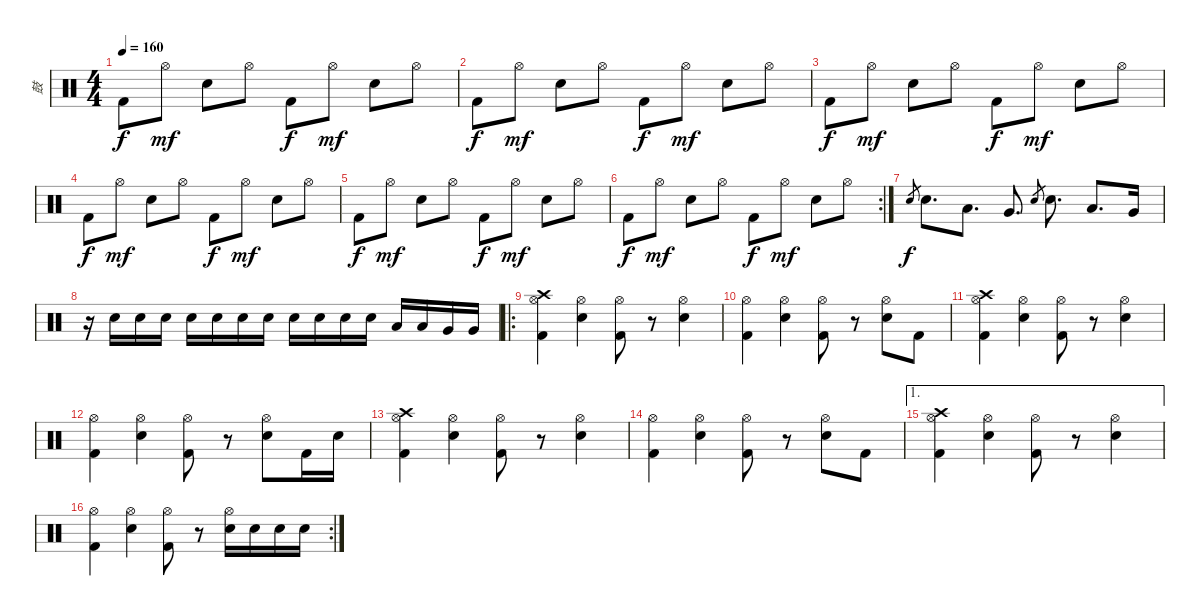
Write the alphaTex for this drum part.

\track ("鼓" "鼓") {instrument percussion}
\staff {score}
\articulation defaults
\ts (4 4)
\tempo 160
\clef neutral
\ks c "Kick (hit) 2".8{dy f} "Hi-Hat (open)".8{dy mf} "Electric Snare (hit)".8 "Hi-Hat (open)".8 "Kick (hit) 2".8{dy f} "Hi-Hat (open)".8{dy mf} "Electric Snare (hit)".8 "Hi-Hat (open)".8
|
"Kick (hit) 2".8{dy f} "Hi-Hat (open)".8{dy mf} "Electric Snare (hit)".8 "Hi-Hat (open)".8 "Kick (hit) 2".8{dy f} "Hi-Hat (open)".8{dy mf} "Electric Snare (hit)".8 "Hi-Hat (open)".8 |
"Kick (hit) 2".8{dy f} "Hi-Hat (open)".8{dy mf} "Electric Snare (hit)".8 "Hi-Hat (open)".8 "Kick (hit) 2".8{dy f} "Hi-Hat (open)".8{dy mf} "Electric Snare (hit)".8 "Hi-Hat (open)".8 |
"Kick (hit) 2".8{dy f} "Hi-Hat (open)".8{dy mf} "Electric Snare (hit)".8 "Hi-Hat (open)".8 "Kick (hit) 2".8{dy f} "Hi-Hat (open)".8{dy mf} "Electric Snare (hit)".8 "Hi-Hat (open)".8 |
"Kick (hit) 2".8{dy f} "Hi-Hat (open)".8{dy mf} "Electric Snare (hit)".8 "Hi-Hat (open)".8 "Kick (hit) 2".8{dy f} "Hi-Hat (open)".8{dy mf} "Electric Snare (hit)".8 "Hi-Hat (open)".8 |
\rc 2 "Kick (hit) 2".8{dy f} "Hi-Hat (open)".8{dy mf} "Electric Snare (hit)".8 "Hi-Hat (open)".8 "Kick (hit) 2".8{dy f} "Hi-Hat (open)".8{dy mf} "Electric Snare (hit)".8 "Hi-Hat (open)".8
|
"Electric Snare (hit)".8{gr dy f} "Electric Snare (hit)".8{d} "Low Tom (hit)".8{d} "Very Low Tom (hit)".8{d} "Electric Snare (hit)".8{gr} "Electric Snare (hit)".8{d} "Low Tom (hit)".8{d} "Very Low Tom (hit)".16 |
r.16 "Electric Snare (hit)".16 "Electric Snare (hit)".16 "Electric Snare (hit)".16 "Electric Snare (hit)".16 "Electric Snare (hit)".16 "Electric Snare (hit)".16 "Electric Snare (hit)".16 "Electric Snare (hit)".16 "Electric Snare (hit)".16 "Electric Snare (hit)".16 "Electric Snare (hit)".16 "Low Tom (hit)".16 "Low Tom (hit)".16 "Very Low Tom (hit)".16 "Very Low Tom (hit)".16 |
\ro
("Crash high (hit)" "Hi-Hat (open)" "Kick (hit) 2").4 ("Hi-Hat (open)" "Electric Snare (hit)").4 ("Hi-Hat (open)" "Kick (hit) 2").8 r.8 ("Hi-Hat (open)" "Electric Snare (hit)").4 |
("Hi-Hat (open)" "Kick (hit) 2").4 ("Hi-Hat (open)" "Electric Snare (hit)").4 ("Hi-Hat (open)" "Kick (hit) 2").8 r.8 ("Hi-Hat (open)" "Electric Snare (hit)").8 "Kick (hit) 2".8 |
("Crash high (hit)" "Hi-Hat (open)" "Kick (hit) 2").4 ("Hi-Hat (open)" "Electric Snare (hit)").4 ("Hi-Hat (open)" "Kick (hit) 2").8 r.8 ("Hi-Hat (open)" "Electric Snare (hit)").4 |
("Hi-Hat (open)" "Kick (hit) 2").4 ("Hi-Hat (open)" "Electric Snare (hit)").4 ("Hi-Hat (open)" "Kick (hit) 2").8 r.8 ("Hi-Hat (open)" "Electric Snare (hit)").8 "Kick (hit) 2".16 "Electric Snare (hit)".16 |
("Crash high (hit)" "Hi-Hat (open)" "Kick (hit) 2").4 ("Hi-Hat (open)" "Electric Snare (hit)").4 ("Hi-Hat (open)" "Kick (hit) 2").8 r.8 ("Hi-Hat (open)" "Electric Snare (hit)").4 |
("Hi-Hat (open)" "Kick (hit) 2").4 ("Hi-Hat (open)" "Electric Snare (hit)").4 ("Hi-Hat (open)" "Kick (hit) 2").8 r.8 ("Hi-Hat (open)" "Electric Snare (hit)").8 "Kick (hit) 2".8 |
\ae 1
("Crash high (hit)" "Hi-Hat (open)" "Kick (hit) 2").4 ("Hi-Hat (open)" "Electric Snare (hit)").4 ("Hi-Hat (open)" "Kick (hit) 2").8 r.8 ("Hi-Hat (open)" "Electric Snare (hit)").4 |
\rc 2
("Hi-Hat (open)" "Kick (hit) 2").4 ("Hi-Hat (open)" "Electric Snare (hit)").4 ("Hi-Hat (open)" "Kick (hit) 2").8 r.8 ("Hi-Hat (open)" "Electric Snare (hit)").16 "Electric Snare (hit)".16 "Electric Snare (hit)".16 "Electric Snare (hit)".16
